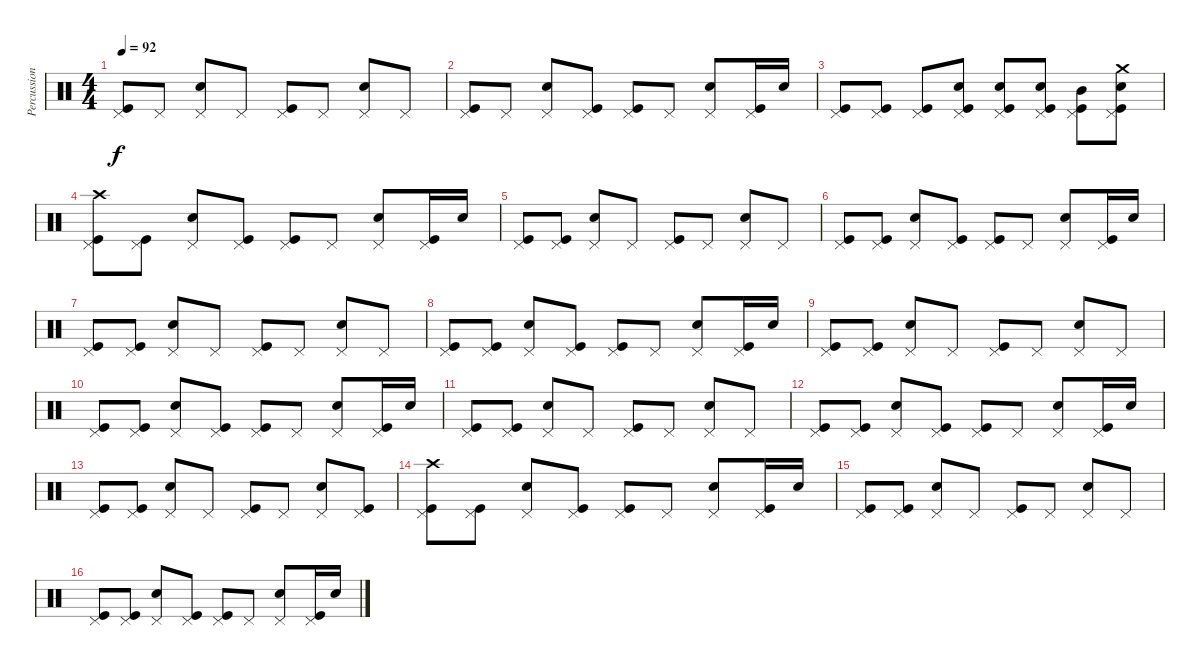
\track ("Percussion" "Percussion") {instrument percussion}
\staff {score}
\articulation defaults
\ts (4 4)
\tempo 92
\clef neutral
\ks c
("Pedal Hi-Hat (hit)" "Kick (hit)").8{dy f} "Pedal Hi-Hat (hit)".8 ("Pedal Hi-Hat (hit)" "Snare (hit) 2").8 "Pedal Hi-Hat (hit)".8 ("Pedal Hi-Hat (hit)" "Kick (hit)").8 "Pedal Hi-Hat (hit)".8 ("Pedal Hi-Hat (hit)" "Snare (hit) 2").8 "Pedal Hi-Hat (hit)".8 |
("Pedal Hi-Hat (hit)" "Kick (hit)").8 "Pedal Hi-Hat (hit)".8 ("Pedal Hi-Hat (hit)" "Snare (hit) 2").8 ("Pedal Hi-Hat (hit)" "Kick (hit)").8 ("Pedal Hi-Hat (hit)" "Kick (hit)").8 "Pedal Hi-Hat (hit)".8 ("Pedal Hi-Hat (hit)" "Snare (hit) 2").8 ("Pedal Hi-Hat (hit)" "Kick (hit)").16 "Snare (hit) 2".16 |
("Pedal Hi-Hat (hit)" "Kick (hit)").8 ("Pedal Hi-Hat (hit)" "Kick (hit)").8 ("Pedal Hi-Hat (hit)" "Kick (hit)").8 ("Pedal Hi-Hat (hit)" "Snare (hit) 2" "Kick (hit)").8 ("Pedal Hi-Hat (hit)" "Snare (hit) 2" "Kick (hit)").8 ("Pedal Hi-Hat (hit)" "Snare (hit) 2" "Kick (hit)").8 ("Pedal Hi-Hat (hit)" "Mid Tom (hit)" "Kick (hit)").8 ("Pedal Hi-Hat (hit)" "Crash medium (hit)" "Snare (hit) 2" "Kick (hit)").8 |
("Pedal Hi-Hat (hit)" "Crash high (hit)" "Kick (hit)").8 ("Pedal Hi-Hat (hit)" "Kick (hit)").8 ("Pedal Hi-Hat (hit)" "Snare (hit) 2").8 ("Pedal Hi-Hat (hit)" "Kick (hit)").8 ("Pedal Hi-Hat (hit)" "Kick (hit)").8 "Pedal Hi-Hat (hit)".8 ("Pedal Hi-Hat (hit)" "Snare (hit) 2").8 ("Pedal Hi-Hat (hit)" "Kick (hit)").16 "Snare (hit) 2".16 |
("Pedal Hi-Hat (hit)" "Kick (hit)").8 ("Pedal Hi-Hat (hit)" "Kick (hit)").8 ("Pedal Hi-Hat (hit)" "Snare (hit) 2").8 "Pedal Hi-Hat (hit)".8 ("Pedal Hi-Hat (hit)" "Kick (hit)").8 "Pedal Hi-Hat (hit)".8 ("Pedal Hi-Hat (hit)" "Snare (hit) 2").8 "Pedal Hi-Hat (hit)".8 |
("Pedal Hi-Hat (hit)" "Kick (hit)").8 ("Pedal Hi-Hat (hit)" "Kick (hit)").8 ("Pedal Hi-Hat (hit)" "Snare (hit) 2").8 ("Pedal Hi-Hat (hit)" "Kick (hit)").8 ("Pedal Hi-Hat (hit)" "Kick (hit)").8 "Pedal Hi-Hat (hit)".8 ("Pedal Hi-Hat (hit)" "Snare (hit) 2").8 ("Pedal Hi-Hat (hit)" "Kick (hit)").16 "Snare (hit) 2".16 |
("Pedal Hi-Hat (hit)" "Kick (hit)").8 ("Pedal Hi-Hat (hit)" "Kick (hit)").8 ("Pedal Hi-Hat (hit)" "Snare (hit) 2").8 "Pedal Hi-Hat (hit)".8 ("Pedal Hi-Hat (hit)" "Kick (hit)").8 "Pedal Hi-Hat (hit)".8 ("Pedal Hi-Hat (hit)" "Snare (hit) 2").8 "Pedal Hi-Hat (hit)".8 |
("Pedal Hi-Hat (hit)" "Kick (hit)").8 ("Pedal Hi-Hat (hit)" "Kick (hit)").8 ("Pedal Hi-Hat (hit)" "Snare (hit) 2").8 ("Pedal Hi-Hat (hit)" "Kick (hit)").8 ("Pedal Hi-Hat (hit)" "Kick (hit)").8 "Pedal Hi-Hat (hit)".8 ("Pedal Hi-Hat (hit)" "Snare (hit) 2").8 ("Pedal Hi-Hat (hit)" "Kick (hit)").16 "Snare (hit) 2".16 |
("Pedal Hi-Hat (hit)" "Kick (hit)").8 ("Pedal Hi-Hat (hit)" "Kick (hit)").8 ("Pedal Hi-Hat (hit)" "Snare (hit) 2").8 "Pedal Hi-Hat (hit)".8 ("Pedal Hi-Hat (hit)" "Kick (hit)").8 "Pedal Hi-Hat (hit)".8 ("Pedal Hi-Hat (hit)" "Snare (hit) 2").8 "Pedal Hi-Hat (hit)".8 |
("Pedal Hi-Hat (hit)" "Kick (hit)").8 ("Pedal Hi-Hat (hit)" "Kick (hit)").8 ("Pedal Hi-Hat (hit)" "Snare (hit) 2").8 ("Pedal Hi-Hat (hit)" "Kick (hit)").8 ("Pedal Hi-Hat (hit)" "Kick (hit)").8 "Pedal Hi-Hat (hit)".8 ("Pedal Hi-Hat (hit)" "Snare (hit) 2").8 ("Pedal Hi-Hat (hit)" "Kick (hit)").16 "Snare (hit) 2".16 |
("Pedal Hi-Hat (hit)" "Kick (hit)").8 ("Pedal Hi-Hat (hit)" "Kick (hit)").8 ("Pedal Hi-Hat (hit)" "Snare (hit) 2").8 "Pedal Hi-Hat (hit)".8 ("Pedal Hi-Hat (hit)" "Kick (hit)").8 "Pedal Hi-Hat (hit)".8 ("Pedal Hi-Hat (hit)" "Snare (hit) 2").8 "Pedal Hi-Hat (hit)".8 |
("Pedal Hi-Hat (hit)" "Kick (hit)").8 ("Pedal Hi-Hat (hit)" "Kick (hit)").8 ("Pedal Hi-Hat (hit)" "Snare (hit) 2").8 ("Pedal Hi-Hat (hit)" "Kick (hit)").8 ("Pedal Hi-Hat (hit)" "Kick (hit)").8 "Pedal Hi-Hat (hit)".8 ("Pedal Hi-Hat (hit)" "Snare (hit) 2").8 ("Pedal Hi-Hat (hit)" "Kick (hit)").16 "Snare (hit) 2".16 |
("Pedal Hi-Hat (hit)" "Kick (hit)").8 ("Pedal Hi-Hat (hit)" "Kick (hit)").8 ("Pedal Hi-Hat (hit)" "Snare (hit) 2").8 "Pedal Hi-Hat (hit)".8 ("Pedal Hi-Hat (hit)" "Kick (hit)").8 "Pedal Hi-Hat (hit)".8 ("Pedal Hi-Hat (hit)" "Snare (hit) 2").8 ("Pedal Hi-Hat (hit)" "Kick (hit)").8 |
("Pedal Hi-Hat (hit)" "Crash high (hit)" "Kick (hit)").8 ("Pedal Hi-Hat (hit)" "Kick (hit)").8 ("Pedal Hi-Hat (hit)" "Snare (hit) 2").8 ("Pedal Hi-Hat (hit)" "Kick (hit)").8 ("Pedal Hi-Hat (hit)" "Kick (hit)").8 "Pedal Hi-Hat (hit)".8 ("Pedal Hi-Hat (hit)" "Snare (hit) 2").8 ("Pedal Hi-Hat (hit)" "Kick (hit)").16 "Snare (hit) 2".16 |
("Pedal Hi-Hat (hit)" "Kick (hit)").8 ("Pedal Hi-Hat (hit)" "Kick (hit)").8 ("Pedal Hi-Hat (hit)" "Snare (hit) 2").8 "Pedal Hi-Hat (hit)".8 ("Pedal Hi-Hat (hit)" "Kick (hit)").8 "Pedal Hi-Hat (hit)".8 ("Pedal Hi-Hat (hit)" "Snare (hit) 2").8 "Pedal Hi-Hat (hit)".8 |
("Pedal Hi-Hat (hit)" "Kick (hit)").8 ("Pedal Hi-Hat (hit)" "Kick (hit)").8 ("Pedal Hi-Hat (hit)" "Snare (hit) 2").8 ("Pedal Hi-Hat (hit)" "Kick (hit)").8 ("Pedal Hi-Hat (hit)" "Kick (hit)").8 "Pedal Hi-Hat (hit)".8 ("Pedal Hi-Hat (hit)" "Snare (hit) 2").8 ("Pedal Hi-Hat (hit)" "Kick (hit)").16 "Snare (hit) 2".16
